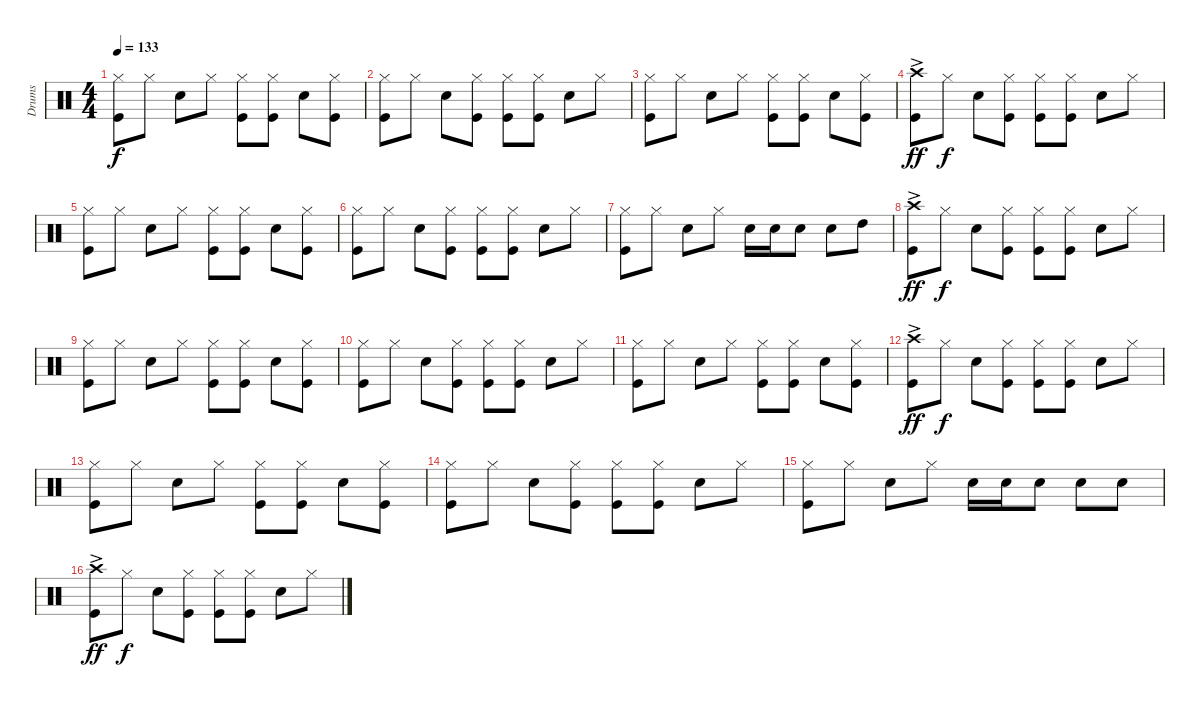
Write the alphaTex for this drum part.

\track ("Drums" "Drums") {instrument percussion}
\staff {score}
\articulation defaults
\ts (4 4)
\tempo 133
\clef neutral
\ks c
("Hi-Hat (closed)" "Kick (hit)").8{dy f} "Hi-Hat (closed)".8 "Snare (hit) 2".8 "Hi-Hat (closed)".8 ("Hi-Hat (closed)" "Kick (hit)").8 ("Hi-Hat (closed)" "Kick (hit)").8 "Snare (hit) 2".8 ("Hi-Hat (closed)" "Kick (hit)").8 |
("Hi-Hat (closed)" "Kick (hit)").8 "Hi-Hat (closed)".8 "Snare (hit) 2".8 ("Hi-Hat (closed)" "Kick (hit)").8 ("Hi-Hat (closed)" "Kick (hit)").8 ("Kick (hit)" "Hi-Hat (closed)").8 "Snare (hit) 2".8 "Hi-Hat (closed)".8 |
("Hi-Hat (closed)" "Kick (hit)").8 "Hi-Hat (closed)".8 "Snare (hit) 2".8 "Hi-Hat (closed)".8 ("Hi-Hat (closed)" "Kick (hit)").8 ("Hi-Hat (closed)" "Kick (hit)").8 "Snare (hit) 2".8 ("Hi-Hat (closed)" "Kick (hit)").8 |
("Crash high (hit)"{ac} "Kick (hit)").8{dy ff} "Hi-Hat (closed)".8{dy f} "Snare (hit) 2".8 ("Hi-Hat (closed)" "Kick (hit)").8 ("Hi-Hat (closed)" "Kick (hit)").8 ("Kick (hit)" "Hi-Hat (closed)").8 "Snare (hit) 2".8 "Hi-Hat (closed)".8 |
("Hi-Hat (closed)" "Kick (hit)").8 "Hi-Hat (closed)".8 "Snare (hit) 2".8 "Hi-Hat (closed)".8 ("Hi-Hat (closed)" "Kick (hit)").8 ("Kick (hit)" "Hi-Hat (closed)").8 "Snare (hit) 2".8 ("Hi-Hat (closed)" "Kick (hit)").8 |
("Kick (hit)" "Hi-Hat (closed)").8 "Hi-Hat (closed)".8 "Snare (hit) 2".8 ("Hi-Hat (closed)" "Kick (hit)").8 ("Kick (hit)" "Hi-Hat (closed)").8 ("Hi-Hat (closed)" "Kick (hit)").8 "Snare (hit) 2".8 "Hi-Hat (closed)".8 |
("Hi-Hat (closed)" "Kick (hit)").8 "Hi-Hat (closed)".8 "Snare (hit) 2".8 "Hi-Hat (closed)".8 "Snare (hit) 2".16 "Snare (hit) 2".16 "Snare (hit) 2".8 "Snare (hit) 2".8 "High Tom (hit)".8 |
("Crash high (hit)"{ac} "Kick (hit)").8{dy ff} "Hi-Hat (closed)".8{dy f} "Snare (hit) 2".8 ("Hi-Hat (closed)" "Kick (hit)").8 ("Kick (hit)" "Hi-Hat (closed)").8 ("Hi-Hat (closed)" "Kick (hit)").8 "Snare (hit) 2".8 "Hi-Hat (closed)".8 |
("Hi-Hat (closed)" "Kick (hit)").8 "Hi-Hat (closed)".8 "Snare (hit) 2".8 "Hi-Hat (closed)".8 ("Hi-Hat (closed)" "Kick (hit)").8 ("Hi-Hat (closed)" "Kick (hit)").8 "Snare (hit) 2".8 ("Hi-Hat (closed)" "Kick (hit)").8 |
("Hi-Hat (closed)" "Kick (hit)").8 "Hi-Hat (closed)".8 "Snare (hit) 2".8 ("Hi-Hat (closed)" "Kick (hit)").8 ("Hi-Hat (closed)" "Kick (hit)").8 ("Hi-Hat (closed)" "Kick (hit)").8 "Snare (hit) 2".8 "Hi-Hat (closed)".8 |
("Hi-Hat (closed)" "Kick (hit)").8 "Hi-Hat (closed)".8 "Snare (hit) 2".8 "Hi-Hat (closed)".8 ("Hi-Hat (closed)" "Kick (hit)").8 ("Hi-Hat (closed)" "Kick (hit)").8 "Snare (hit) 2".8 ("Hi-Hat (closed)" "Kick (hit)").8 |
("Crash high (hit)"{ac} "Kick (hit)").8{dy ff} "Hi-Hat (closed)".8{dy f} "Snare (hit) 2".8 ("Hi-Hat (closed)" "Kick (hit)").8 ("Hi-Hat (closed)" "Kick (hit)").8 ("Kick (hit)" "Hi-Hat (closed)").8 "Snare (hit) 2".8 "Hi-Hat (closed)".8 |
("Hi-Hat (closed)" "Kick (hit)").8 "Hi-Hat (closed)".8 "Snare (hit) 2".8 "Hi-Hat (closed)".8 ("Hi-Hat (closed)" "Kick (hit)").8 ("Kick (hit)" "Hi-Hat (closed)").8 "Snare (hit) 2".8 ("Hi-Hat (closed)" "Kick (hit)").8 |
("Hi-Hat (closed)" "Kick (hit)").8 "Hi-Hat (closed)".8 "Snare (hit) 2".8 ("Hi-Hat (closed)" "Kick (hit)").8 ("Kick (hit)" "Hi-Hat (closed)").8 ("Hi-Hat (closed)" "Kick (hit)").8 "Snare (hit) 2".8 "Hi-Hat (closed)".8 |
("Hi-Hat (closed)" "Kick (hit)").8 "Hi-Hat (closed)".8 "Snare (hit) 2".8 "Hi-Hat (closed)".8 "Snare (hit) 2".16 "Snare (hit) 2".16 "Snare (hit) 2".8 "Snare (hit) 2".8 "Snare (hit) 2".8 |
("Crash high (hit)"{ac} "Kick (hit)").8{dy ff} "Hi-Hat (closed)".8{dy f} "Snare (hit) 2".8 ("Hi-Hat (closed)" "Kick (hit)").8 ("Kick (hit)" "Hi-Hat (closed)").8 ("Hi-Hat (closed)" "Kick (hit)").8 "Snare (hit) 2".8 "Hi-Hat (closed)".8
